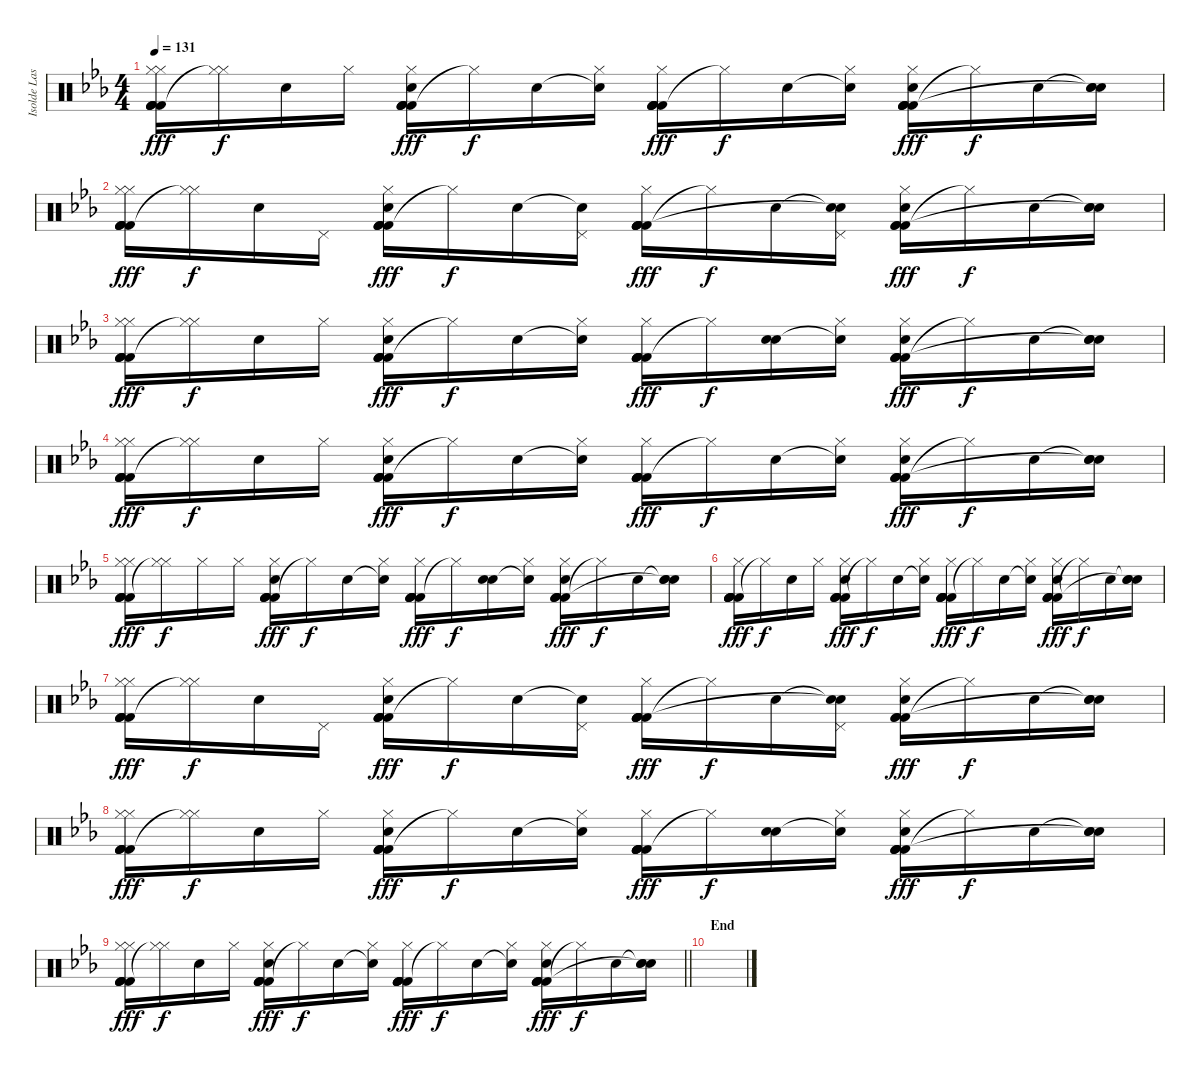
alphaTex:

\track ("Isolde Lasoen (Percussion)" "Isolde Las") {instrument percussion}
\staff {score}
\articulation defaults
\ts (4 4)
\tempo 131
\clef neutral
\ks cminor
("Hi-Hat (closed)" "Kick (hit) 2" "Kick (hit) 2" "Kick (hit) 2" "Hi-Hat (closed)" "Kick (hit) 2").16{dy fff} ("Hi-Hat (closed)" "Hi-Hat (closed)"{t}).16{dy f} "Hand Clap (hit)".16 "Hi-Hat (closed)".16 ("Kick (hit) 2" "Kick (hit) 2" "Kick (hit) 2" "Kick (hit) 2" "Hi-Hat (closed)" "Hand Clap (hit)").16{dy fff} "Hi-Hat (closed)"{t}.16{dy f} "Hand Clap (hit)".16 ("Snare (hit)"{t} "Hi-Hat (closed)").16 ("Kick (hit) 2" "Kick (hit) 2" "Kick (hit) 2" "Kick (hit) 2" "Hi-Hat (closed)" "Kick (hit) 2").16{dy fff} "Hi-Hat (closed)"{t}.16{dy f} "Hand Clap (hit)".16 ("Snare (hit)"{t} "Hi-Hat (closed)").16 ("Kick (hit) 2" "Kick (hit) 2" "Kick (hit) 2" "Kick (hit) 2" "Hi-Hat (closed)" "Hand Clap (hit)").16{dy fff} "Hi-Hat (closed)"{t}.16{dy f} "Hand Clap (hit)".16 ("Snare (hit)"{t} "Hand Clap (hit)" "Snare (hit)"{t}).16 |
("Hi-Hat (closed)" "Kick (hit) 2" "Kick (hit) 2" "Kick (hit) 2" "Hi-Hat (closed)" "Kick (hit) 2").16{dy fff} ("Hi-Hat (closed)" "Hi-Hat (closed)"{t}).16{dy f} "Hand Clap (hit)".16 "Pedal Hi-Hat (hit)".16 ("Kick (hit) 2" "Kick (hit) 2" "Kick (hit) 2" "Kick (hit) 2" "Hi-Hat (closed)" "Hand Clap (hit)").16{dy fff} "Hi-Hat (closed)"{t}.16{dy f} "Hand Clap (hit)".16 ("Snare (hit)"{t} "Pedal Hi-Hat (hit)").16 ("Kick (hit) 2" "Kick (hit) 2" "Kick (hit) 2" "Kick (hit) 2" "Hi-Hat (closed)" "Kick (hit) 2").16{dy fff} "Hi-Hat (closed)"{t}.16{dy f} "Hand Clap (hit)".16 ("Snare (hit)"{t} "Snare (hit)"{t} "Pedal Hi-Hat (hit)").16 ("Kick (hit) 2" "Kick (hit) 2" "Kick (hit) 2" "Hi-Hat (closed)" "Hand Clap (hit)").16{dy fff} "Hi-Hat (closed)"{t}.16{dy f} "Hand Clap (hit)".16 ("Snare (hit)"{t} "Hand Clap (hit)" "Snare (hit)"{t}).16 |
("Hi-Hat (closed)" "Kick (hit) 2" "Kick (hit) 2" "Kick (hit) 2" "Hi-Hat (closed)" "Kick (hit) 2").16{dy fff} ("Hi-Hat (closed)" "Hi-Hat (closed)"{t}).16{dy f} "Hand Clap (hit)".16 "Hi-Hat (closed)".16 ("Kick (hit) 2" "Kick (hit) 2" "Kick (hit) 2" "Kick (hit) 2" "Hi-Hat (closed)" "Hand Clap (hit)").16{dy fff} "Hi-Hat (closed)"{t}.16{dy f} "Hand Clap (hit)".16 ("Snare (hit)"{t} "Hi-Hat (closed)").16 ("Kick (hit) 2" "Kick (hit) 2" "Kick (hit) 2" "Kick (hit) 2" "Hi-Hat (closed)" "Kick (hit) 2").16{dy fff} "Hi-Hat (closed)"{t}.16{dy f} ("Hand Clap (hit)" "Hand Clap (hit)").16 ("Snare (hit)"{t} "Hi-Hat (closed)").16 ("Kick (hit) 2" "Kick (hit) 2" "Kick (hit) 2" "Kick (hit) 2" "Hi-Hat (closed)" "Hand Clap (hit)").16{dy fff} "Hi-Hat (closed)"{t}.16{dy f} "Hand Clap (hit)".16 ("Snare (hit)"{t} "Hand Clap (hit)" "Snare (hit)"{t}).16 |
("Hi-Hat (closed)" "Kick (hit) 2" "Kick (hit) 2" "Kick (hit) 2" "Hi-Hat (closed)" "Kick (hit) 2").16{dy fff} ("Hi-Hat (closed)" "Hi-Hat (closed)"{t}).16{dy f} "Hand Clap (hit)".16 "Hi-Hat (closed)".16 ("Kick (hit) 2" "Kick (hit) 2" "Kick (hit) 2" "Kick (hit) 2" "Hi-Hat (closed)" "Hand Clap (hit)").16{dy fff} "Hi-Hat (closed)"{t}.16{dy f} "Hand Clap (hit)".16 ("Snare (hit)"{t} "Hi-Hat (closed)").16 ("Kick (hit) 2" "Kick (hit) 2" "Kick (hit) 2" "Kick (hit) 2" "Hi-Hat (closed)" "Kick (hit) 2").16{dy fff} "Hi-Hat (closed)"{t}.16{dy f} "Hand Clap (hit)".16 ("Snare (hit)"{t} "Hi-Hat (closed)").16 ("Kick (hit) 2" "Kick (hit) 2" "Kick (hit) 2" "Kick (hit) 2" "Hi-Hat (closed)" "Hand Clap (hit)").16{dy fff} "Hi-Hat (closed)"{t}.16{dy f} "Hand Clap (hit)".16 ("Snare (hit)"{t} "Hand Clap (hit)" "Snare (hit)"{t}).16 |
("Hi-Hat (closed)" "Kick (hit) 2" "Kick (hit) 2" "Kick (hit) 2" "Hi-Hat (closed)" "Kick (hit) 2").16{dy fff} ("Hi-Hat (closed)" "Hi-Hat (closed)"{t}).16{dy f} "Hi-Hat (closed)".16 "Hi-Hat (closed)".16 ("Kick (hit) 2" "Kick (hit) 2" "Kick (hit) 2" "Kick (hit) 2" "Hi-Hat (closed)" "Hand Clap (hit)").16{dy fff} "Hi-Hat (closed)"{t}.16{dy f} "Hand Clap (hit)".16 ("Snare (hit)"{t} "Hi-Hat (closed)").16 ("Kick (hit) 2" "Kick (hit) 2" "Kick (hit) 2" "Kick (hit) 2" "Hi-Hat (closed)" "Kick (hit) 2").16{dy fff} "Hi-Hat (closed)"{t}.16{dy f} ("Hand Clap (hit)" "Hand Clap (hit)").16 ("Snare (hit)"{t} "Hi-Hat (closed)").16 ("Kick (hit) 2" "Kick (hit) 2" "Kick (hit) 2" "Kick (hit) 2" "Hi-Hat (closed)" "Hand Clap (hit)").16{dy fff} "Hi-Hat (closed)"{t}.16{dy f} "Hand Clap (hit)".16 ("Snare (hit)"{t} "Hand Clap (hit)" "Snare (hit)"{t}).16 |
("Kick (hit) 2" "Kick (hit) 2" "Kick (hit) 2" "Kick (hit) 2" "Hi-Hat (closed)" "Kick (hit) 2").16{dy fff} "Hi-Hat (closed)"{t}.16{dy f} "Hand Clap (hit)".16 "Hi-Hat (closed)".16 ("Kick (hit) 2" "Kick (hit) 2" "Kick (hit) 2" "Kick (hit) 2" "Hi-Hat (closed)" "Hand Clap (hit)").16{dy fff} "Hi-Hat (closed)"{t}.16{dy f} "Hand Clap (hit)".16 ("Snare (hit)"{t} "Hi-Hat (closed)").16 ("Kick (hit) 2" "Kick (hit) 2" "Kick (hit) 2" "Kick (hit) 2" "Hi-Hat (closed)" "Kick (hit) 2").16{dy fff} "Hi-Hat (closed)"{t}.16{dy f} "Hand Clap (hit)".16 ("Snare (hit)"{t} "Hi-Hat (closed)").16 ("Kick (hit) 2" "Kick (hit) 2" "Kick (hit) 2" "Kick (hit) 2" "Hi-Hat (closed)" "Hand Clap (hit)").16{dy fff} "Hi-Hat (closed)"{t}.16{dy f} "Hand Clap (hit)".16 ("Snare (hit)"{t} "Hand Clap (hit)" "Snare (hit)"{t}).16 |
("Hi-Hat (closed)" "Kick (hit) 2" "Kick (hit) 2" "Kick (hit) 2" "Hi-Hat (closed)" "Kick (hit) 2").16{dy fff} ("Hi-Hat (closed)" "Hi-Hat (closed)"{t}).16{dy f} "Hand Clap (hit)".16 "Pedal Hi-Hat (hit)".16 ("Kick (hit) 2" "Kick (hit) 2" "Kick (hit) 2" "Kick (hit) 2" "Hi-Hat (closed)" "Hand Clap (hit)").16{dy fff} "Hi-Hat (closed)"{t}.16{dy f} "Hand Clap (hit)".16 ("Snare (hit)"{t} "Pedal Hi-Hat (hit)").16 ("Kick (hit) 2" "Kick (hit) 2" "Kick (hit) 2" "Kick (hit) 2" "Hi-Hat (closed)" "Kick (hit) 2").16{dy fff} "Hi-Hat (closed)"{t}.16{dy f} "Hand Clap (hit)".16 ("Snare (hit)"{t} "Snare (hit)"{t} "Pedal Hi-Hat (hit)").16 ("Kick (hit) 2" "Kick (hit) 2" "Kick (hit) 2" "Hi-Hat (closed)" "Hand Clap (hit)").16{dy fff} "Hi-Hat (closed)"{t}.16{dy f} "Hand Clap (hit)".16 ("Snare (hit)"{t} "Hand Clap (hit)" "Snare (hit)"{t}).16 |
("Hi-Hat (closed)" "Kick (hit) 2" "Kick (hit) 2" "Kick (hit) 2" "Hi-Hat (closed)" "Kick (hit) 2").16{dy fff} ("Hi-Hat (closed)" "Hi-Hat (closed)"{t}).16{dy f} "Hand Clap (hit)".16 "Hi-Hat (closed)".16 ("Kick (hit) 2" "Kick (hit) 2" "Kick (hit) 2" "Kick (hit) 2" "Hi-Hat (closed)" "Hand Clap (hit)").16{dy fff} "Hi-Hat (closed)"{t}.16{dy f} "Hand Clap (hit)".16 ("Snare (hit)"{t} "Hi-Hat (closed)").16 ("Kick (hit) 2" "Kick (hit) 2" "Kick (hit) 2" "Kick (hit) 2" "Hi-Hat (closed)" "Kick (hit) 2").16{dy fff} "Hi-Hat (closed)"{t}.16{dy f} ("Hand Clap (hit)" "Hand Clap (hit)").16 ("Snare (hit)"{t} "Hi-Hat (closed)").16 ("Kick (hit) 2" "Kick (hit) 2" "Kick (hit) 2" "Kick (hit) 2" "Hi-Hat (closed)" "Hand Clap (hit)").16{dy fff} "Hi-Hat (closed)"{t}.16{dy f} "Hand Clap (hit)".16 ("Snare (hit)"{t} "Hand Clap (hit)" "Snare (hit)"{t}).16 |
\barLineRight lightlight
("Hi-Hat (closed)" "Kick (hit) 2" "Kick (hit) 2" "Kick (hit) 2" "Hi-Hat (closed)" "Kick (hit) 2").16{dy fff} ("Hi-Hat (closed)" "Hi-Hat (closed)"{t}).16{dy f} "Hand Clap (hit)".16 "Hi-Hat (closed)".16 ("Kick (hit) 2" "Kick (hit) 2" "Kick (hit) 2" "Kick (hit) 2" "Hi-Hat (closed)" "Hand Clap (hit)").16{dy fff} "Hi-Hat (closed)"{t}.16{dy f} "Hand Clap (hit)".16 ("Snare (hit)"{t} "Hi-Hat (closed)").16 ("Kick (hit) 2" "Kick (hit) 2" "Kick (hit) 2" "Kick (hit) 2" "Hi-Hat (closed)" "Kick (hit) 2").16{dy fff} "Hi-Hat (closed)"{t}.16{dy f} "Hand Clap (hit)".16 ("Snare (hit)"{t} "Hi-Hat (closed)").16 ("Kick (hit) 2" "Kick (hit) 2" "Kick (hit) 2" "Kick (hit) 2" "Hi-Hat (closed)" "Hand Clap (hit)").16{dy fff} "Hi-Hat (closed)"{t}.16{dy f} "Hand Clap (hit)".16 ("Snare (hit)"{t} "Hand Clap (hit)" "Snare (hit)"{t}).16 |
\section ("" "End")
